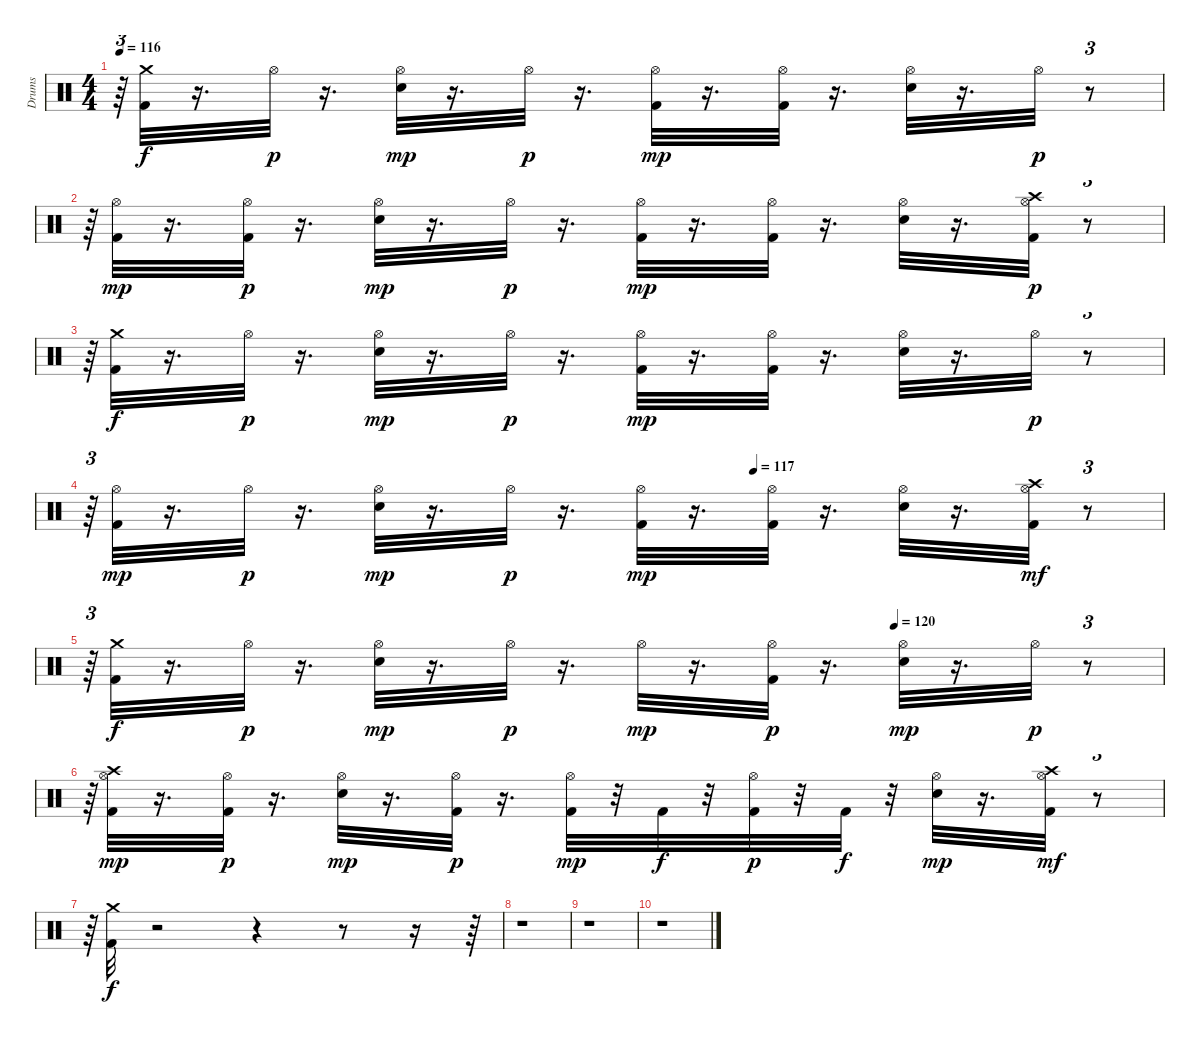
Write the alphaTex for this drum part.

\track ("Drums" "Drums") {instrument percussion}
\staff {score}
\articulation defaults
\ts (4 4)
\tempo 116
\clef neutral
\ks c
r.64{tu (3 2) dy f} ("Crash medium (hit)" "Kick (hit) 2").32 r.16{d} "Hi-Hat (open)".32{dy p} r.16{d} ("Hi-Hat (open)" "Snare (hit) 2").32{dy mp} r.16{d} "Hi-Hat (open)".32{dy p} r.16{d} ("Kick (hit) 2" "Hi-Hat (open)").32{dy mp} r.16{d} ("Hi-Hat (open)" "Kick (hit) 2").32 r.16{d} ("Snare (hit) 2" "Hi-Hat (open)").32 r.16{d} "Hi-Hat (open)".32{dy p} r.8{tu (3 2)} |
r.64{tu (3 2)} ("Kick (hit) 2" "Hi-Hat (open)").32{dy mp} r.16{d} ("Kick (hit) 2" "Hi-Hat (open)").32{dy p} r.16{d} ("Hi-Hat (open)" "Snare (hit) 2").32{dy mp} r.16{d} "Hi-Hat (open)".32{dy p} r.16{d} ("Kick (hit) 2" "Hi-Hat (open)").32{dy mp} r.16{d} ("Hi-Hat (open)" "Kick (hit) 2").32 r.16{d} ("Snare (hit) 2" "Hi-Hat (open)").32 r.16{d} ("Crash high (hit)" "Kick (hit) 2" "Hi-Hat (open)").32{dy p} r.8{tu (3 2)} |
r.64{tu (3 2)} ("Crash medium (hit)" "Kick (hit) 2").32{dy f} r.16{d} "Hi-Hat (open)".32{dy p} r.16{d} ("Hi-Hat (open)" "Snare (hit) 2").32{dy mp} r.16{d} "Hi-Hat (open)".32{dy p} r.16{d} ("Kick (hit) 2" "Hi-Hat (open)").32{dy mp} r.16{d} ("Hi-Hat (open)" "Kick (hit) 2").32 r.16{d} ("Snare (hit) 2" "Hi-Hat (open)").32 r.16{d} "Hi-Hat (open)".32{dy p} r.8{tu (3 2)} |
\tempo (117 0.61875)
r.64{tu (3 2)} ("Kick (hit) 2" "Hi-Hat (open)").32{dy mp} r.16{d} "Hi-Hat (open)".32{dy p} r.16{d} ("Hi-Hat (open)" "Snare (hit) 2").32{dy mp} r.16{d} "Hi-Hat (open)".32{dy p} r.16{d} ("Kick (hit) 2" "Hi-Hat (open)").32{dy mp} r.16{d} ("Hi-Hat (open)" "Kick (hit) 2").32 r.16{d} ("Snare (hit) 2" "Hi-Hat (open)").32 r.16{d} ("Kick (hit) 2" "Crash high (hit)" "Hi-Hat (open)").32{dy mf} r.8{tu (3 2)} |
\tempo (120 0.75)
r.64{tu (3 2)} ("Kick (hit) 2" "Crash medium (hit)").32{dy f} r.16{d} "Hi-Hat (open)".32{dy p} r.16{d} ("Snare (hit) 2" "Hi-Hat (open)").32{dy mp} r.16{d} "Hi-Hat (open)".32{dy p} r.16{d} "Hi-Hat (open)".32{dy mp} r.16{d} ("Kick (hit) 2" "Hi-Hat (open)").32{dy p} r.16{d} ("Snare (hit) 2" "Hi-Hat (open)").32{dy mp} r.16{d} "Hi-Hat (open)".32{dy p} r.8{tu (3 2)} |
r.64{tu (3 2)} ("Kick (hit) 2" "Crash high (hit)" "Hi-Hat (open)").32{dy mp} r.16{d} ("Kick (hit) 2" "Hi-Hat (open)").32{dy p} r.16{d} ("Snare (hit) 2" "Hi-Hat (open)").32{dy mp} r.16{d} ("Kick (hit) 2" "Hi-Hat (open)").32{dy p} r.16{d} ("Kick (hit) 2" "Hi-Hat (open)").32{dy mp} r.32 "Kick (hit) 2".32{dy f} r.32 ("Kick (hit) 2" "Hi-Hat (open)").32{dy p} r.32 "Kick (hit) 2".32{dy f} r.32 ("Snare (hit) 2" "Hi-Hat (open)").32{dy mp} r.16{d} ("Crash high (hit)" "Kick (hit) 2" "Hi-Hat (open)").32{dy mf} r.8{tu (3 2)} |
r.64{tu (3 2)} ("Kick (hit) 2" "Crash medium (hit)").32{dy f} r.2 r.4 r.8 r.16 r.64 |
r.1 |
r.1 |
r.1
